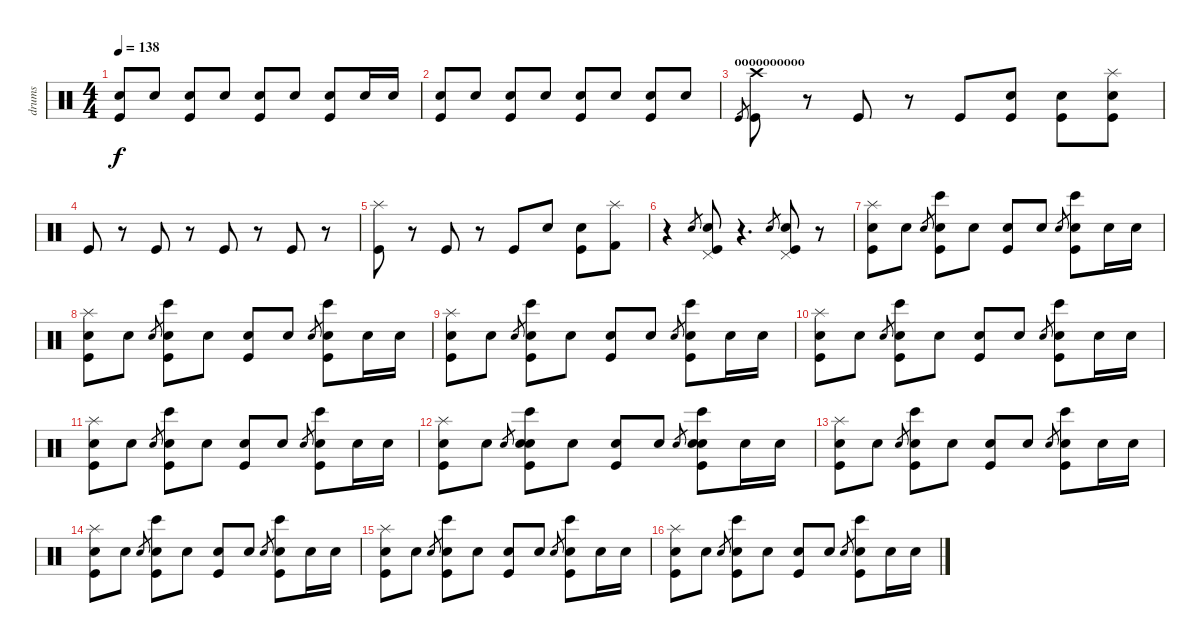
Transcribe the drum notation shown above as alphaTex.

\track ("drums" "drums") {instrument percussion}
\staff {score}
\articulation defaults
\ts (4 4)
\tempo 138
\clef neutral
\ks c
("Snare (hit) 2" "Kick (hit)").8{dy f} "Snare (hit) 2".8 ("Snare (hit) 2" "Kick (hit)").8 "Snare (hit) 2".8 ("Snare (hit) 2" "Kick (hit)").8 "Snare (hit) 2".8 ("Snare (hit) 2" "Kick (hit)").8 "Snare (hit) 2".16{volume 11} "Snare (hit) 2".16 |
("Snare (hit) 2" "Kick (hit)").8 "Snare (hit) 2".8 ("Snare (hit) 2" "Kick (hit)").8 "Snare (hit) 2".8 ("Snare (hit) 2" "Kick (hit)").8 "Snare (hit) 2".8 ("Snare (hit) 2" "Kick (hit)").8 "Snare (hit) 2".8 |
\section ("" "oooooooooo")
"Kick (hit)".8{gr} ("Crash high (hit)" "Kick (hit)").8{volume 16} r.8 "Kick (hit)".8 r.8 "Kick (hit)".8 ("Snare (hit) 2" "Kick (hit)").8 ("Snare (hit) 2" "Kick (hit)").8 ("Splash (hit)" "Snare (hit) 2" "Kick (hit)").8 |
"Kick (hit)".8 r.8 "Kick (hit)".8 r.8 "Kick (hit)".8 r.8 "Kick (hit)".8 r.8 |
("Splash (hit)" "Kick (hit)").8 r.8 "Kick (hit)".8 r.8 "Kick (hit)".8 "Snare (hit) 2".8 ("Snare (hit) 2" "Kick (hit)").8 ("Splash (hit)" "Kick (hit) 2").8 |
r.4 "Snare (hit) 2".8{gr} ("Snare (hit) 2" "Pedal Hi-Hat (hit)" "Kick (hit)").8 r.4{d} "Snare (hit) 2".8{gr} ("Snare (hit) 2" "Pedal Hi-Hat (hit)" "Kick (hit)").8 r.8 |
("Splash (hit)" "Snare (hit) 2" "Kick (hit)").8{volume 11} "Snare (hit) 2".8 "Snare (hit)".8{gr} ("Bongo High (hit)" "Snare (hit) 2" "Kick (hit)").8 "Snare (hit) 2".8 ("Snare (hit) 2" "Kick (hit)").8 "Snare (hit) 2".8 "Snare (hit)".8{gr} ("Bongo High (hit)" "Snare (hit) 2" "Kick (hit)").8 "Snare (hit) 2".16 "Snare (hit) 2".16 |
("Splash (hit)" "Snare (hit) 2" "Kick (hit)").8{volume 11} "Snare (hit) 2".8 "Snare (hit)".8{gr} ("Bongo High (hit)" "Snare (hit) 2" "Kick (hit)").8 "Snare (hit) 2".8 ("Snare (hit) 2" "Kick (hit)").8 "Snare (hit) 2".8 "Snare (hit)".8{gr} ("Bongo High (hit)" "Snare (hit) 2" "Kick (hit)").8 "Snare (hit) 2".16 "Snare (hit) 2".16 |
("Splash (hit)" "Snare (hit) 2" "Kick (hit)").8{volume 11} "Snare (hit) 2".8 "Snare (hit)".8{gr} ("Bongo High (hit)" "Snare (hit) 2" "Kick (hit)").8 "Snare (hit) 2".8 ("Snare (hit) 2" "Kick (hit)").8 "Snare (hit) 2".8 "Snare (hit)".8{gr} ("Bongo High (hit)" "Snare (hit) 2" "Kick (hit)").8 "Snare (hit) 2".16 "Snare (hit) 2".16 |
("Splash (hit)" "Snare (hit) 2" "Kick (hit)").8{volume 11} "Snare (hit) 2".8 "Snare (hit)".8{gr} ("Bongo High (hit)" "Snare (hit) 2" "Kick (hit)").8 "Snare (hit) 2".8 ("Snare (hit) 2" "Kick (hit)").8 "Snare (hit) 2".8 "Snare (hit)".8{gr} ("Bongo High (hit)" "Snare (hit) 2" "Kick (hit)").8 "Snare (hit) 2".16 "Snare (hit) 2".16 |
("Splash (hit)" "Snare (hit) 2" "Kick (hit)").8{volume 11} "Snare (hit) 2".8 "Snare (hit)".8{gr} ("Bongo High (hit)" "Snare (hit) 2" "Kick (hit)").8 "Snare (hit) 2".8 ("Snare (hit) 2" "Kick (hit)").8 "Snare (hit) 2".8 "Snare (hit)".8{gr} ("Bongo High (hit)" "Snare (hit) 2" "Kick (hit)").8 "Snare (hit) 2".16 "Snare (hit) 2".16 |
("Splash (hit)" "Snare (hit) 2" "Kick (hit)").8{volume 11} "Snare (hit) 2".8 "Snare (hit)".8{gr} ("Bongo High (hit)" "Snare (hit) 2" "Hand Clap (hit)" "Kick (hit)").8 "Snare (hit) 2".8 ("Snare (hit) 2" "Kick (hit)").8 "Snare (hit) 2".8 "Snare (hit)".8{gr} ("Bongo High (hit)" "Snare (hit) 2" "Hand Clap (hit)" "Kick (hit)").8 "Snare (hit) 2".16 "Snare (hit) 2".16 |
("Splash (hit)" "Snare (hit) 2" "Kick (hit)").8{volume 11} "Snare (hit) 2".8 "Snare (hit)".8{gr} ("Bongo High (hit)" "Snare (hit) 2" "Kick (hit)").8 "Snare (hit) 2".8 ("Snare (hit) 2" "Kick (hit)").8 "Snare (hit) 2".8 "Snare (hit)".8{gr} ("Bongo High (hit)" "Snare (hit) 2" "Kick (hit)").8 "Snare (hit) 2".16 "Snare (hit) 2".16 |
("Splash (hit)" "Snare (hit) 2" "Kick (hit)").8{volume 11} "Snare (hit) 2".8 "Snare (hit)".8{gr} ("Bongo High (hit)" "Snare (hit) 2" "Kick (hit)").8 "Snare (hit) 2".8 ("Snare (hit) 2" "Kick (hit)").8 "Snare (hit) 2".8 "Snare (hit)".8{gr} ("Bongo High (hit)" "Snare (hit) 2" "Kick (hit)").8 "Snare (hit) 2".16 "Snare (hit) 2".16 |
("Splash (hit)" "Snare (hit) 2" "Kick (hit)").8{volume 11} "Snare (hit) 2".8 "Snare (hit)".8{gr} ("Bongo High (hit)" "Snare (hit) 2" "Kick (hit)").8 "Snare (hit) 2".8 ("Snare (hit) 2" "Kick (hit)").8 "Snare (hit) 2".8 "Snare (hit)".8{gr} ("Bongo High (hit)" "Snare (hit) 2" "Kick (hit)").8 "Snare (hit) 2".16 "Snare (hit) 2".16 |
("Splash (hit)" "Snare (hit) 2" "Kick (hit)").8{volume 11} "Snare (hit) 2".8 "Snare (hit)".8{gr} ("Bongo High (hit)" "Snare (hit) 2" "Kick (hit)").8 "Snare (hit) 2".8 ("Snare (hit) 2" "Kick (hit)").8 "Snare (hit) 2".8 "Snare (hit)".8{gr} ("Bongo High (hit)" "Snare (hit) 2" "Kick (hit)").8 "Snare (hit) 2".16 "Snare (hit) 2".16
